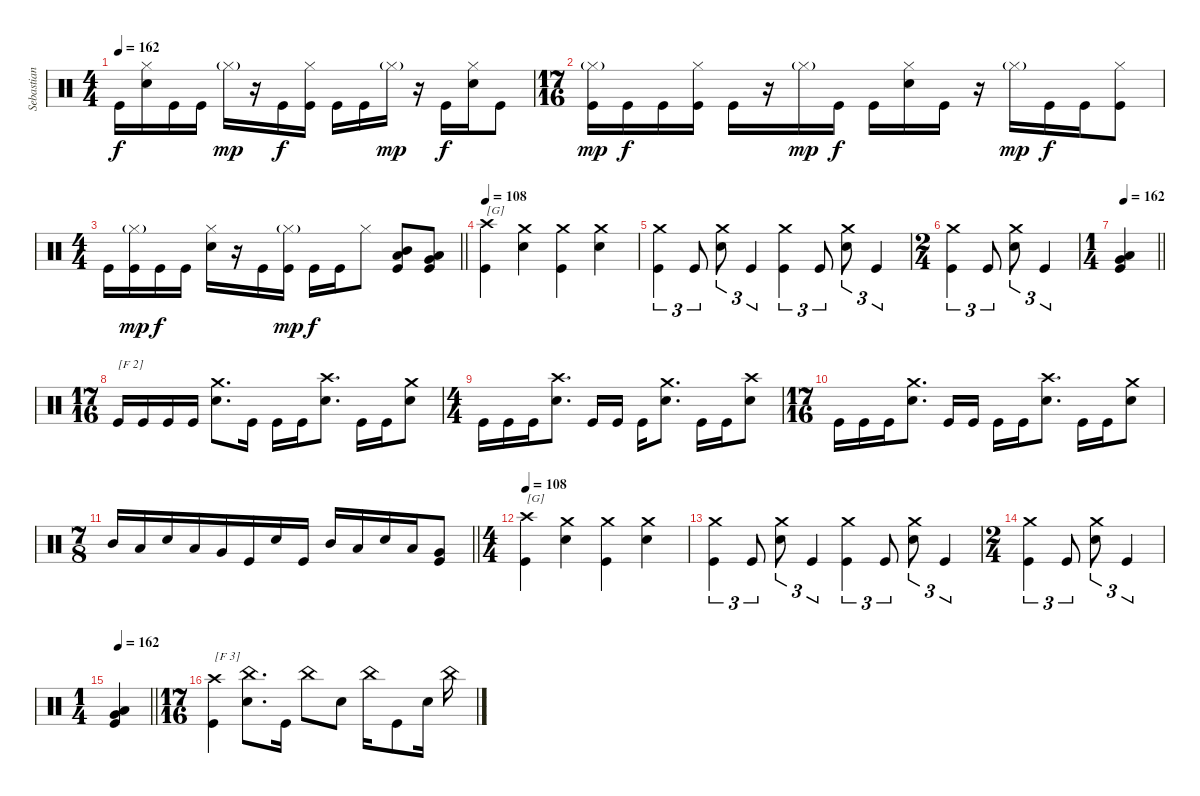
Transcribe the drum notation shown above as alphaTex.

\track ("Sebastian Lanser" "Sebastian ") {instrument percussion}
\staff {score}
\articulation defaults
\ts (4 4)
\tempo 162
\clef neutral
\ks c "Kick (hit)".16{dy f}
("Hi-Hat (closed)" "Snare (hit) 2").16 "Kick (hit)".16 "Kick (hit)".16 "Hi-Hat (closed)"{g}.16{dy mp} r.16 "Kick (hit)".16{dy f} ("Hi-Hat (closed)" "Kick (hit)").16 "Kick (hit)".16 "Kick (hit)".16 "Hi-Hat (closed)"{g}.16{dy mp} r.16 "Kick (hit)".16{dy f} ("Hi-Hat (closed)" "Snare (hit) 2").16 "Kick (hit)".8 |
\ts (17 16)
("Hi-Hat (closed)"{g} "Kick (hit)").16{dy mp} "Kick (hit)".16{dy f} "Kick (hit)".16 ("Hi-Hat (closed)" "Kick (hit)").16 "Kick (hit)".16 r.16 "Hi-Hat (closed)"{g}.16{dy mp} "Kick (hit)".16{dy f} "Kick (hit)".16 ("Hi-Hat (closed)" "Snare (hit) 2").16 "Kick (hit)".16 r.16 "Hi-Hat (closed)"{g}.16{dy mp} "Kick (hit)".16{dy f} "Kick (hit)".16 ("Hi-Hat (closed)" "Kick (hit)").8 |
\ts (4 4)
\barLineRight lightlight "Kick (hit)".16
("Hi-Hat (closed)"{g} "Kick (hit)").16{dy mp} "Kick (hit)".16{dy f} "Kick (hit)".16 ("Hi-Hat (closed)" "Snare (hit) 2").16 r.16 "Kick (hit)".16 ("Hi-Hat (closed)"{g} "Kick (hit)").16{dy mp} "Kick (hit)".16{dy f} "Kick (hit)".16 "Hi-Hat (closed)".8 ("Mid Tom (hit)" "Low Tom (hit)" "Kick (hit)").8 ("Low Tom (hit)" "Very Low Tom (hit)" "Kick (hit)").8 |
\tempo 108
("Crash high (hit)" "Kick (hit)").4{txt "[G]"} ("Crash medium (hit)" "Snare (hit) 2").4 ("Crash medium (hit)" "Kick (hit)").4 ("Crash medium (hit)" "Snare (hit) 2").4 |
("Crash medium (hit)" "Kick (hit)").4{tu (3 2)} "Kick (hit)".8{tu (3 2)} ("Crash medium (hit)" "Snare (hit) 2").8{tu (3 2)} "Kick (hit)".4{tu (3 2)} ("Crash medium (hit)" "Kick (hit)").4{tu (3 2)} "Kick (hit)".8{tu (3 2)} ("Crash medium (hit)" "Snare (hit) 2").8{tu (3 2)} "Kick (hit)".4{tu (3 2)} |
\ts (2 4)
("Crash medium (hit)" "Kick (hit)").4{tu (3 2)} "Kick (hit)".8{tu (3 2)} ("Crash medium (hit)" "Snare (hit) 2").8{tu (3 2)} "Kick (hit)".4{tu (3 2)} |
\ts (1 4)
\tempo 162
\barLineRight lightlight
("Low Tom (hit)" "Very Low Tom (hit)" "Kick (hit)").4 |
\ts (17 16)
"Kick (hit)".16{txt "[F 2]"} "Kick (hit)".16 "Kick (hit)".16 "Kick (hit)".16 ("Crash medium (hit)" "Snare (hit) 2").8{d} "Kick (hit)".16 "Kick (hit)".16 "Kick (hit)".16 ("Crash high (hit)" "Snare (hit) 2").8{d} "Kick (hit)".16 "Kick (hit)".16 ("Crash medium (hit)" "Snare (hit) 2").8 |
\ts (4 4)
"Kick (hit)".16 "Kick (hit)".16 "Kick (hit)".16 ("Crash high (hit)" "Snare (hit) 2").8{d} "Kick (hit)".16 "Kick (hit)".16 "Kick (hit)".16 ("Crash medium (hit)" "Snare (hit) 2").8{d} "Kick (hit)".16 "Kick (hit)".16 ("Crash high (hit)" "Snare (hit) 2").8 |
\ts (17 16)
"Kick (hit)".16 "Kick (hit)".16 "Kick (hit)".16 ("Crash medium (hit)" "Snare (hit) 2").8{d} "Kick (hit)".16 "Kick (hit)".16 "Kick (hit)".16 "Kick (hit)".16 ("Crash high (hit)" "Snare (hit) 2").8{d} "Kick (hit)".16 "Kick (hit)".16 ("Crash medium (hit)" "Snare (hit) 2").8 |
\ts (7 8)
\barLineRight lightlight "Mid Tom (hit)".16 "Low Tom (hit)".16 "Snare (hit) 2".16 "Low Tom (hit)".16 "Very Low Tom (hit)".16 "Kick (hit)".16 "Snare (hit) 2".16 "Kick (hit)".16 "Mid Tom (hit)".16 "Low Tom (hit)".16 "Snare (hit) 2".16 "Low Tom (hit)".16
("Very Low Tom (hit)" "Kick (hit)").8 |
\ts (4 4)
\tempo 108
("Crash high (hit)" "Kick (hit)").4{txt "[G]"} ("Crash medium (hit)" "Snare (hit) 2").4 ("Crash medium (hit)" "Kick (hit)").4 ("Crash medium (hit)" "Snare (hit) 2").4 |
("Crash medium (hit)" "Kick (hit)").4{tu (3 2)} "Kick (hit)".8{tu (3 2)} ("Crash medium (hit)" "Snare (hit) 2").8{tu (3 2)} "Kick (hit)".4{tu (3 2)} ("Crash medium (hit)" "Kick (hit)").4{tu (3 2)} "Kick (hit)".8{tu (3 2)} ("Crash medium (hit)" "Snare (hit) 2").8{tu (3 2)} "Kick (hit)".4{tu (3 2)} |
\ts (2 4)
("Crash medium (hit)" "Kick (hit)").4{tu (3 2)} "Kick (hit)".8{tu (3 2)} ("Crash medium (hit)" "Snare (hit) 2").8{tu (3 2)} "Kick (hit)".4{tu (3 2)} |
\ts (1 4)
\tempo 162
\barLineRight lightlight
("Low Tom (hit)" "Very Low Tom (hit)" "Kick (hit)").4 |
\ts (17 16)
("Crash high (hit)" "Kick (hit)").4{txt "[F 3]"} ("China (hit)" "Snare (hit) 2").8{d} "Kick (hit)".16 "China (hit)".8 "Snare (hit) 2".8 "China (hit)".16 "Kick (hit)".8 "Snare (hit) 2".16 "China (hit)".16
